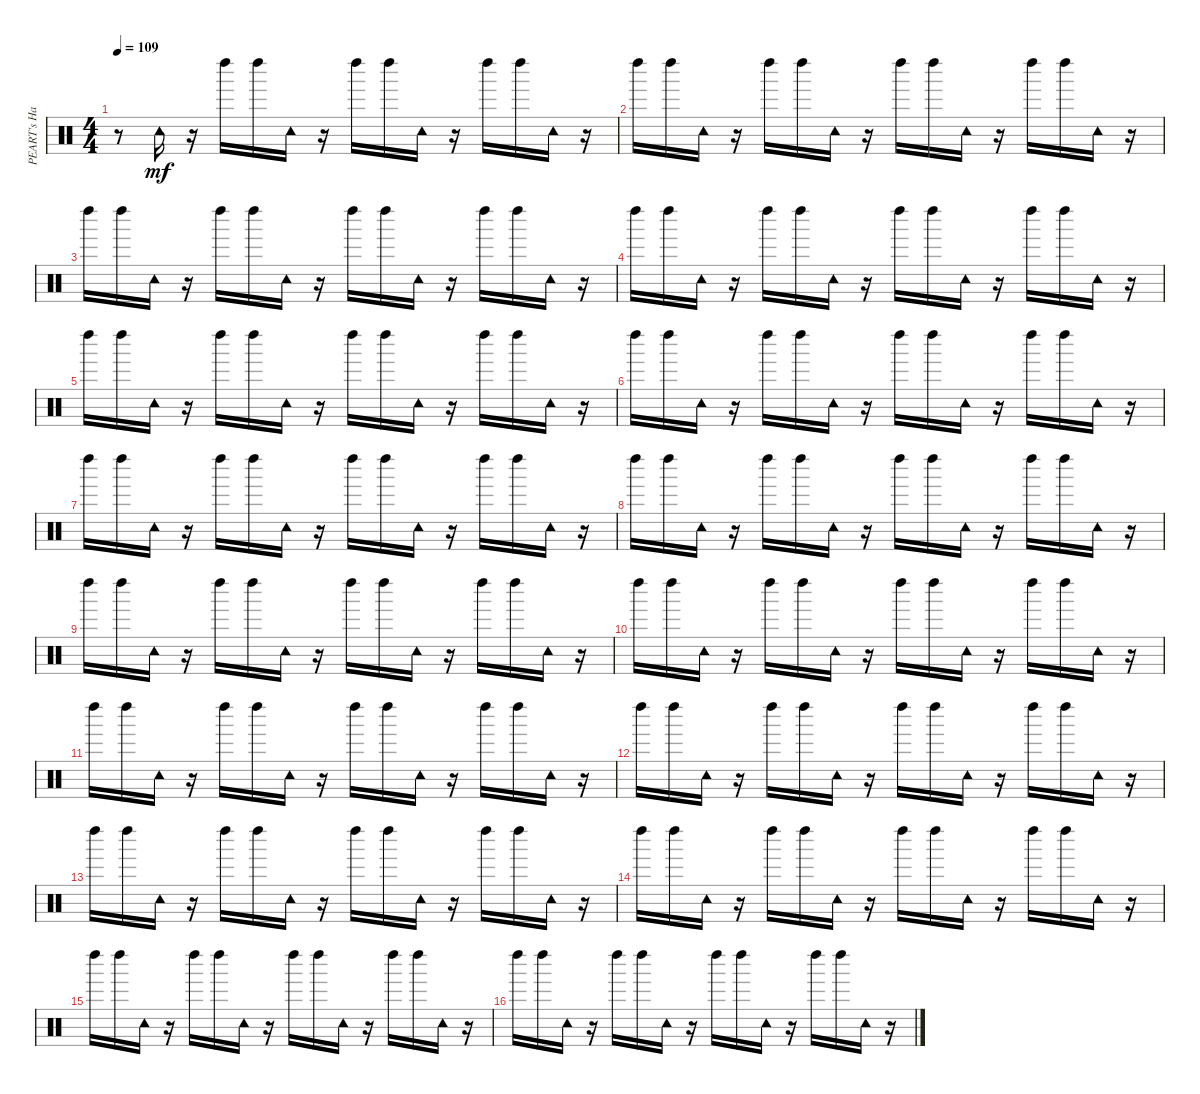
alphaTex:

\track ("PEART's Hand Shaker " "PEART's Ha") {instrument percussion}
\staff {score}
\articulation defaults
\ts (4 4)
\tempo 109
\clef neutral
\ks c
r.8{dy mf} "Tambourine (hit)".16 r.16 "Left Maraca (hit)".16 "Left Maraca (hit)".16 "Tambourine (hit)".16 r.16 "Left Maraca (hit)".16 "Left Maraca (hit)".16 "Tambourine (hit)".16 r.16 "Left Maraca (hit)".16 "Left Maraca (hit)".16 "Tambourine (hit)".16 r.16 |
"Left Maraca (hit)".16 "Left Maraca (hit)".16 "Tambourine (hit)".16 r.16 "Left Maraca (hit)".16 "Left Maraca (hit)".16 "Tambourine (hit)".16 r.16 "Left Maraca (hit)".16 "Left Maraca (hit)".16 "Tambourine (hit)".16 r.16 "Left Maraca (hit)".16 "Left Maraca (hit)".16 "Tambourine (hit)".16 r.16 |
"Left Maraca (hit)".16 "Left Maraca (hit)".16 "Tambourine (hit)".16 r.16 "Left Maraca (hit)".16 "Left Maraca (hit)".16 "Tambourine (hit)".16 r.16 "Left Maraca (hit)".16 "Left Maraca (hit)".16 "Tambourine (hit)".16 r.16 "Left Maraca (hit)".16 "Left Maraca (hit)".16 "Tambourine (hit)".16 r.16 |
"Left Maraca (hit)".16 "Left Maraca (hit)".16 "Tambourine (hit)".16 r.16 "Left Maraca (hit)".16 "Left Maraca (hit)".16 "Tambourine (hit)".16 r.16 "Left Maraca (hit)".16 "Left Maraca (hit)".16 "Tambourine (hit)".16 r.16 "Left Maraca (hit)".16 "Left Maraca (hit)".16 "Tambourine (hit)".16 r.16 |
"Left Maraca (hit)".16 "Left Maraca (hit)".16 "Tambourine (hit)".16 r.16 "Left Maraca (hit)".16 "Left Maraca (hit)".16 "Tambourine (hit)".16 r.16 "Left Maraca (hit)".16 "Left Maraca (hit)".16 "Tambourine (hit)".16 r.16 "Left Maraca (hit)".16 "Left Maraca (hit)".16 "Tambourine (hit)".16 r.16 |
"Left Maraca (hit)".16 "Left Maraca (hit)".16 "Tambourine (hit)".16 r.16 "Left Maraca (hit)".16 "Left Maraca (hit)".16 "Tambourine (hit)".16 r.16 "Left Maraca (hit)".16 "Left Maraca (hit)".16 "Tambourine (hit)".16 r.16 "Left Maraca (hit)".16 "Left Maraca (hit)".16 "Tambourine (hit)".16 r.16 |
"Left Maraca (hit)".16 "Left Maraca (hit)".16 "Tambourine (hit)".16 r.16 "Left Maraca (hit)".16 "Left Maraca (hit)".16 "Tambourine (hit)".16 r.16 "Left Maraca (hit)".16 "Left Maraca (hit)".16 "Tambourine (hit)".16 r.16 "Left Maraca (hit)".16 "Left Maraca (hit)".16 "Tambourine (hit)".16 r.16 |
"Left Maraca (hit)".16 "Left Maraca (hit)".16 "Tambourine (hit)".16 r.16 "Left Maraca (hit)".16 "Left Maraca (hit)".16 "Tambourine (hit)".16 r.16 "Left Maraca (hit)".16 "Left Maraca (hit)".16 "Tambourine (hit)".16 r.16 "Left Maraca (hit)".16 "Left Maraca (hit)".16 "Tambourine (hit)".16 r.16 |
"Left Maraca (hit)".16 "Left Maraca (hit)".16 "Tambourine (hit)".16 r.16 "Left Maraca (hit)".16 "Left Maraca (hit)".16 "Tambourine (hit)".16 r.16 "Left Maraca (hit)".16 "Left Maraca (hit)".16 "Tambourine (hit)".16 r.16 "Left Maraca (hit)".16 "Left Maraca (hit)".16 "Tambourine (hit)".16 r.16 |
"Left Maraca (hit)".16 "Left Maraca (hit)".16 "Tambourine (hit)".16 r.16 "Left Maraca (hit)".16 "Left Maraca (hit)".16 "Tambourine (hit)".16 r.16 "Left Maraca (hit)".16 "Left Maraca (hit)".16 "Tambourine (hit)".16 r.16 "Left Maraca (hit)".16 "Left Maraca (hit)".16 "Tambourine (hit)".16 r.16 |
"Left Maraca (hit)".16 "Left Maraca (hit)".16 "Tambourine (hit)".16 r.16 "Left Maraca (hit)".16 "Left Maraca (hit)".16 "Tambourine (hit)".16 r.16 "Left Maraca (hit)".16 "Left Maraca (hit)".16 "Tambourine (hit)".16 r.16 "Left Maraca (hit)".16 "Left Maraca (hit)".16 "Tambourine (hit)".16 r.16 |
"Left Maraca (hit)".16 "Left Maraca (hit)".16 "Tambourine (hit)".16 r.16 "Left Maraca (hit)".16 "Left Maraca (hit)".16 "Tambourine (hit)".16 r.16 "Left Maraca (hit)".16 "Left Maraca (hit)".16 "Tambourine (hit)".16 r.16 "Left Maraca (hit)".16 "Left Maraca (hit)".16 "Tambourine (hit)".16 r.16 |
"Left Maraca (hit)".16 "Left Maraca (hit)".16 "Tambourine (hit)".16 r.16 "Left Maraca (hit)".16 "Left Maraca (hit)".16 "Tambourine (hit)".16 r.16 "Left Maraca (hit)".16 "Left Maraca (hit)".16 "Tambourine (hit)".16 r.16 "Left Maraca (hit)".16 "Left Maraca (hit)".16 "Tambourine (hit)".16 r.16 |
"Left Maraca (hit)".16 "Left Maraca (hit)".16 "Tambourine (hit)".16 r.16 "Left Maraca (hit)".16 "Left Maraca (hit)".16 "Tambourine (hit)".16 r.16 "Left Maraca (hit)".16 "Left Maraca (hit)".16 "Tambourine (hit)".16 r.16 "Left Maraca (hit)".16 "Left Maraca (hit)".16 "Tambourine (hit)".16 r.16 |
"Left Maraca (hit)".16 "Left Maraca (hit)".16 "Tambourine (hit)".16 r.16 "Left Maraca (hit)".16 "Left Maraca (hit)".16 "Tambourine (hit)".16 r.16 "Left Maraca (hit)".16 "Left Maraca (hit)".16 "Tambourine (hit)".16 r.16 "Left Maraca (hit)".16 "Left Maraca (hit)".16 "Tambourine (hit)".16 r.16 |
"Left Maraca (hit)".16 "Left Maraca (hit)".16 "Tambourine (hit)".16 r.16 "Left Maraca (hit)".16 "Left Maraca (hit)".16 "Tambourine (hit)".16 r.16 "Left Maraca (hit)".16 "Left Maraca (hit)".16 "Tambourine (hit)".16 r.16 "Left Maraca (hit)".16 "Left Maraca (hit)".16 "Tambourine (hit)".16 r.16
